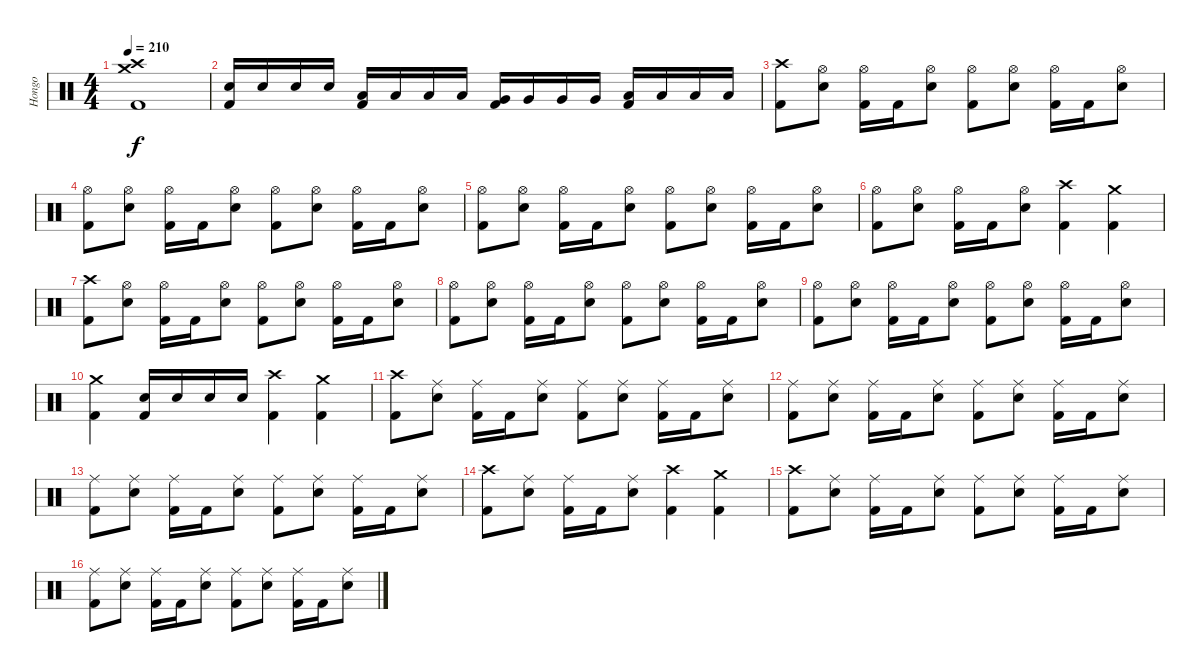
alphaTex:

\track ("Hongo" "Hongo") {instrument percussion}
\staff {score}
\articulation defaults
\ts (4 4)
\tempo 210
\clef neutral
\ks c
("Crash high (hit)" "Crash medium (hit)" "Kick (hit) 2").1{dy f} |
("Electric Snare (hit)" "Kick (hit) 2").16 "Electric Snare (hit)".16 "Electric Snare (hit)".16 "Electric Snare (hit)".16 ("Low Tom (hit)" "Kick (hit) 2").16 "Low Tom (hit)".16 "Low Tom (hit)".16 "Low Tom (hit)".16 ("Very Low Tom (hit)" "Kick (hit) 2").16 "Very Low Tom (hit)".16 "Very Low Tom (hit)".16 "Very Low Tom (hit)".16 ("Low Floor Tom (hit)" "Kick (hit) 2").16 "Low Floor Tom (hit)".16 "Low Floor Tom (hit)".16 "Low Floor Tom (hit)".16 |
("Crash high (hit)" "Kick (hit) 2").8 ("Hi-Hat (open)" "Electric Snare (hit)").8 ("Hi-Hat (open)" "Kick (hit) 2").16 "Kick (hit) 2".16 ("Hi-Hat (open)" "Electric Snare (hit)").8 ("Hi-Hat (open)" "Kick (hit) 2").8 ("Hi-Hat (open)" "Electric Snare (hit)").8 ("Hi-Hat (open)" "Kick (hit) 2").16 "Kick (hit) 2".16 ("Hi-Hat (open)" "Electric Snare (hit)").8 |
("Hi-Hat (open)" "Kick (hit) 2").8 ("Hi-Hat (open)" "Electric Snare (hit)").8 ("Hi-Hat (open)" "Kick (hit) 2").16 "Kick (hit) 2".16 ("Hi-Hat (open)" "Electric Snare (hit)").8 ("Hi-Hat (open)" "Kick (hit) 2").8 ("Hi-Hat (open)" "Electric Snare (hit)").8 ("Hi-Hat (open)" "Kick (hit) 2").16 "Kick (hit) 2".16 ("Hi-Hat (open)" "Electric Snare (hit)").8 |
("Hi-Hat (open)" "Kick (hit) 2").8 ("Hi-Hat (open)" "Electric Snare (hit)").8 ("Hi-Hat (open)" "Kick (hit) 2").16 "Kick (hit) 2".16 ("Hi-Hat (open)" "Electric Snare (hit)").8 ("Hi-Hat (open)" "Kick (hit) 2").8 ("Hi-Hat (open)" "Electric Snare (hit)").8 ("Hi-Hat (open)" "Kick (hit) 2").16 "Kick (hit) 2".16 ("Hi-Hat (open)" "Electric Snare (hit)").8 |
("Hi-Hat (open)" "Kick (hit) 2").8 ("Hi-Hat (open)" "Electric Snare (hit)").8 ("Hi-Hat (open)" "Kick (hit) 2").16 "Kick (hit) 2".16 ("Hi-Hat (open)" "Electric Snare (hit)").8 ("Crash high (hit)" "Kick (hit) 2").4 ("Crash medium (hit)" "Kick (hit) 2").4 |
("Crash high (hit)" "Kick (hit) 2").8 ("Hi-Hat (open)" "Electric Snare (hit)").8 ("Hi-Hat (open)" "Kick (hit) 2").16 "Kick (hit) 2".16 ("Hi-Hat (open)" "Electric Snare (hit)").8 ("Hi-Hat (open)" "Kick (hit) 2").8 ("Hi-Hat (open)" "Electric Snare (hit)").8 ("Hi-Hat (open)" "Kick (hit) 2").16 "Kick (hit) 2".16 ("Hi-Hat (open)" "Electric Snare (hit)").8 |
("Hi-Hat (open)" "Kick (hit) 2").8 ("Hi-Hat (open)" "Electric Snare (hit)").8 ("Hi-Hat (open)" "Kick (hit) 2").16 "Kick (hit) 2".16 ("Hi-Hat (open)" "Electric Snare (hit)").8 ("Hi-Hat (open)" "Kick (hit) 2").8 ("Hi-Hat (open)" "Electric Snare (hit)").8 ("Hi-Hat (open)" "Kick (hit) 2").16 "Kick (hit) 2".16 ("Hi-Hat (open)" "Electric Snare (hit)").8 |
("Hi-Hat (open)" "Kick (hit) 2").8 ("Hi-Hat (open)" "Electric Snare (hit)").8 ("Hi-Hat (open)" "Kick (hit) 2").16 "Kick (hit) 2".16 ("Hi-Hat (open)" "Electric Snare (hit)").8 ("Hi-Hat (open)" "Kick (hit) 2").8 ("Hi-Hat (open)" "Electric Snare (hit)").8 ("Hi-Hat (open)" "Kick (hit) 2").16 "Kick (hit) 2".16 ("Hi-Hat (open)" "Electric Snare (hit)").8 |
("Crash medium (hit)" "Kick (hit) 2").4 ("Electric Snare (hit)" "Kick (hit) 2").16 "Electric Snare (hit)".16 "Electric Snare (hit)".16 "Electric Snare (hit)".16 ("Crash high (hit)" "Kick (hit) 2").4 ("Crash medium (hit)" "Kick (hit) 2").4 |
("Crash high (hit)" "Kick (hit) 2").8 ("Ride (middle)" "Electric Snare (hit)").8 ("Ride (middle)" "Kick (hit) 2").16 "Kick (hit) 2".16 ("Ride (middle)" "Electric Snare (hit)").8 ("Ride (middle)" "Kick (hit) 2").8 ("Ride (middle)" "Electric Snare (hit)").8 ("Ride (middle)" "Kick (hit) 2").16 "Kick (hit) 2".16 ("Ride (middle)" "Electric Snare (hit)").8 |
("Ride (middle)" "Kick (hit) 2").8 ("Ride (middle)" "Electric Snare (hit)").8 ("Ride (middle)" "Kick (hit) 2").16 "Kick (hit) 2".16 ("Ride (middle)" "Electric Snare (hit)").8 ("Ride (middle)" "Kick (hit) 2").8 ("Ride (middle)" "Electric Snare (hit)").8 ("Ride (middle)" "Kick (hit) 2").16 "Kick (hit) 2".16 ("Ride (middle)" "Electric Snare (hit)").8 |
("Ride (middle)" "Kick (hit) 2").8 ("Ride (middle)" "Electric Snare (hit)").8 ("Ride (middle)" "Kick (hit) 2").16 "Kick (hit) 2".16 ("Ride (middle)" "Electric Snare (hit)").8 ("Ride (middle)" "Kick (hit) 2").8 ("Ride (middle)" "Electric Snare (hit)").8 ("Ride (middle)" "Kick (hit) 2").16 "Kick (hit) 2".16 ("Ride (middle)" "Electric Snare (hit)").8 |
("Crash high (hit)" "Kick (hit) 2").8 ("Ride (middle)" "Electric Snare (hit)").8 ("Ride (middle)" "Kick (hit) 2").16 "Kick (hit) 2".16 ("Ride (middle)" "Electric Snare (hit)").8 ("Crash high (hit)" "Kick (hit) 2").4 ("Crash medium (hit)" "Kick (hit) 2").4 |
("Crash high (hit)" "Kick (hit) 2").8 ("Ride (middle)" "Electric Snare (hit)").8 ("Ride (middle)" "Kick (hit) 2").16 "Kick (hit) 2".16 ("Ride (middle)" "Electric Snare (hit)").8 ("Ride (middle)" "Kick (hit) 2").8 ("Ride (middle)" "Electric Snare (hit)").8 ("Ride (middle)" "Kick (hit) 2").16 "Kick (hit) 2".16 ("Ride (middle)" "Electric Snare (hit)").8 |
("Ride (middle)" "Kick (hit) 2").8 ("Ride (middle)" "Electric Snare (hit)").8 ("Ride (middle)" "Kick (hit) 2").16 "Kick (hit) 2".16 ("Ride (middle)" "Electric Snare (hit)").8 ("Ride (middle)" "Kick (hit) 2").8 ("Ride (middle)" "Electric Snare (hit)").8 ("Ride (middle)" "Kick (hit) 2").16 "Kick (hit) 2".16 ("Ride (middle)" "Electric Snare (hit)").8
